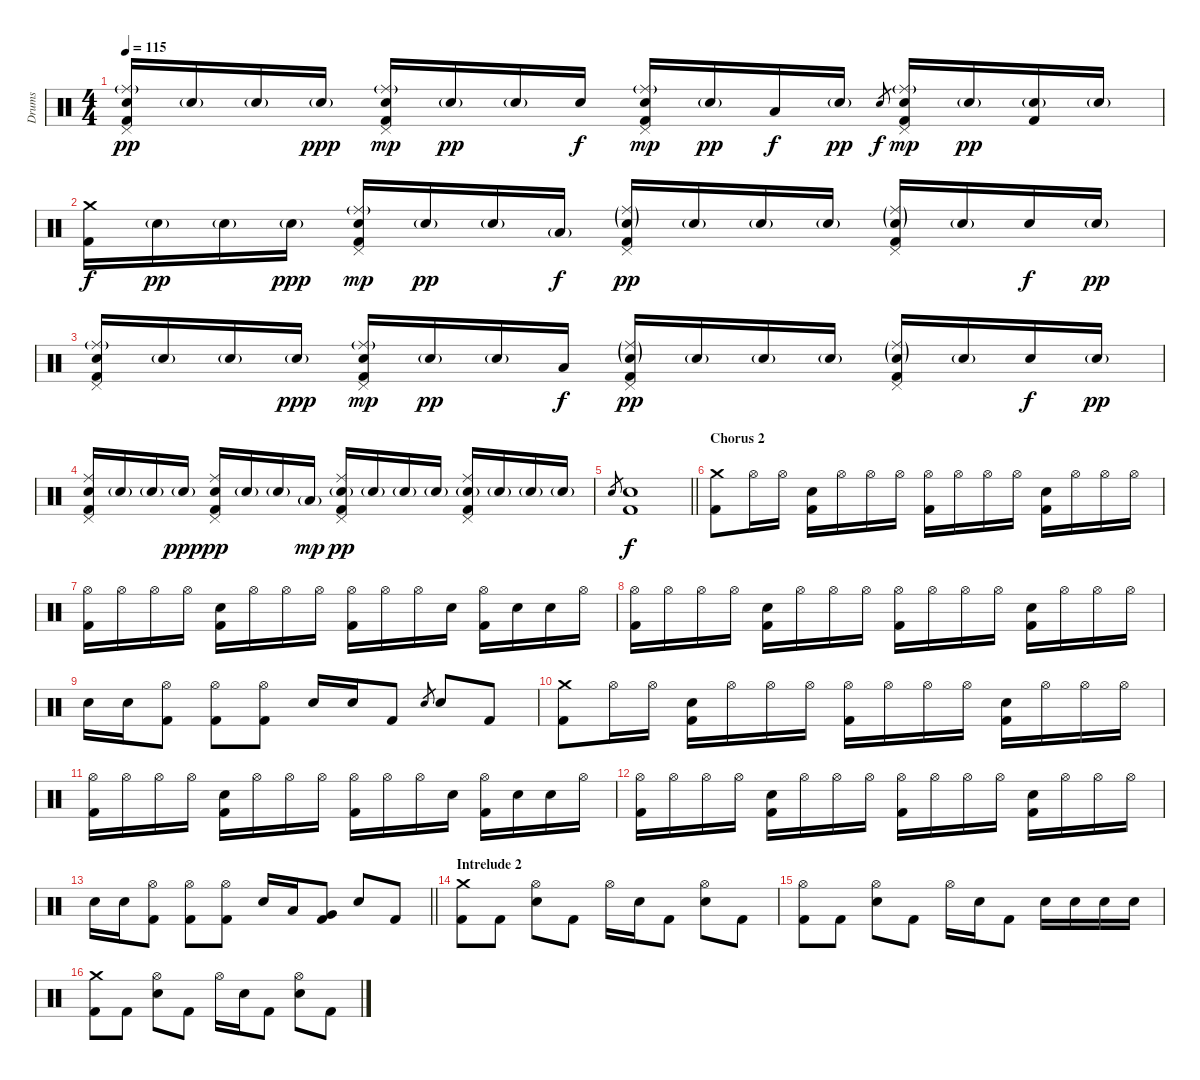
\track ("Drums" "Drums") {instrument percussion}
\staff {score}
\articulation defaults
\ts (4 4)
\tempo 115
\clef neutral
\ks c
("Pedal Hi-Hat (hit)" "Ride (middle)"{g} "Electric Snare (hit)" "Kick (hit) 2").16{dy pp} "Electric Snare (hit)"{g}.16 "Electric Snare (hit)"{g}.16 "Electric Snare (hit)"{g}.16{dy ppp} ("Pedal Hi-Hat (hit)" "Ride (middle)"{g} "Electric Snare (hit)" "Kick (hit) 2").16{dy mp} "Electric Snare (hit)"{g}.16{dy pp} "Electric Snare (hit)"{g}.16 "Electric Snare (hit)".16{dy f} ("Pedal Hi-Hat (hit)" "Ride (middle)"{g} "Electric Snare (hit)" "Kick (hit) 2").16{dy mp} "Electric Snare (hit)"{g}.16{dy pp} "Low Tom (hit)".16{dy f} "Electric Snare (hit)"{g}.16{dy pp} "Electric Snare (hit)".8{gr dy f} ("Pedal Hi-Hat (hit)" "Ride (middle)"{g} "Electric Snare (hit)" "Kick (hit) 2").16{dy mp} "Electric Snare (hit)"{g}.16{dy pp} ("Electric Snare (hit)"{g} "Kick (hit) 2").16 "Electric Snare (hit)"{g}.16 |
("Crash medium (hit)" "Kick (hit) 2").16{dy f} "Electric Snare (hit)"{g}.16{dy pp} "Electric Snare (hit)"{g}.16 "Electric Snare (hit)"{g}.16{dy ppp} ("Pedal Hi-Hat (hit)" "Ride (middle)"{g} "Electric Snare (hit)" "Kick (hit) 2").16{dy mp} "Electric Snare (hit)"{g}.16{dy pp} "Electric Snare (hit)"{g}.16 "Low Tom (hit)"{g}.16{dy f} ("Pedal Hi-Hat (hit)" "Ride (middle)"{g} "Electric Snare (hit)"{g} "Kick (hit) 2").16{dy pp} "Electric Snare (hit)"{g}.16 "Electric Snare (hit)"{g}.16 "Electric Snare (hit)"{g}.16 ("Pedal Hi-Hat (hit)" "Ride (middle)"{g} "Electric Snare (hit)"{g} "Kick (hit) 2").16 "Electric Snare (hit)"{g}.16 "Electric Snare (hit)".16{dy f} "Electric Snare (hit)"{g}.16{dy pp} |
("Pedal Hi-Hat (hit)" "Ride (middle)"{g} "Electric Snare (hit)" "Kick (hit) 2").16 "Electric Snare (hit)"{g}.16 "Electric Snare (hit)"{g}.16 "Electric Snare (hit)"{g}.16{dy ppp} ("Pedal Hi-Hat (hit)" "Ride (middle)"{g} "Electric Snare (hit)" "Kick (hit) 2").16{dy mp} "Electric Snare (hit)"{g}.16{dy pp} "Electric Snare (hit)"{g}.16 "Low Tom (hit)".16{dy f} ("Pedal Hi-Hat (hit)" "Ride (middle)"{g} "Electric Snare (hit)"{g} "Kick (hit) 2").16{dy pp} "Electric Snare (hit)"{g}.16 "Electric Snare (hit)"{g}.16 "Electric Snare (hit)"{g}.16 ("Pedal Hi-Hat (hit)" "Ride (middle)"{g} "Electric Snare (hit)"{g} "Kick (hit) 2").16 "Electric Snare (hit)"{g}.16 "Electric Snare (hit)".16{dy f} "Electric Snare (hit)"{g}.16{dy pp} |
("Pedal Hi-Hat (hit)" "Ride (middle)" "Electric Snare (hit)" "Kick (hit) 2").16 "Electric Snare (hit)"{g}.16 "Electric Snare (hit)"{g}.16 "Electric Snare (hit)"{g}.16{dy ppp} ("Pedal Hi-Hat (hit)" "Ride (middle)" "Electric Snare (hit)" "Kick (hit) 2").16{dy pp} "Electric Snare (hit)"{g}.16 "Electric Snare (hit)"{g}.16 "Low Tom (hit)"{g}.16{dy mp} ("Pedal Hi-Hat (hit)" "Ride (middle)" "Electric Snare (hit)"{g} "Kick (hit) 2").16{dy pp} "Electric Snare (hit)"{g}.16 "Electric Snare (hit)"{g}.16 "Electric Snare (hit)"{g}.16 ("Pedal Hi-Hat (hit)" "Ride (middle)" "Electric Snare (hit)"{g} "Kick (hit) 2").16 "Electric Snare (hit)"{g}.16 "Electric Snare (hit)"{g}.16 "Electric Snare (hit)"{g}.16 |
\barLineRight lightlight "Electric Snare (hit)".8{gr}
("Electric Snare (hit)" "Kick (hit) 2").1{dy f} |
\section ("" "Chorus 2")
("Crash medium (hit)" "Kick (hit) 2").8 "Hi-Hat (open)".16 "Hi-Hat (open)".16 ("Electric Snare (hit)" "Kick (hit) 2").16 "Hi-Hat (open)".16 "Hi-Hat (open)".16 "Hi-Hat (open)".16 ("Hi-Hat (open)" "Kick (hit) 2").16 "Hi-Hat (open)".16 "Hi-Hat (open)".16 "Hi-Hat (open)".16 ("Electric Snare (hit)" "Kick (hit) 2").16 "Hi-Hat (open)".16 "Hi-Hat (open)".16 "Hi-Hat (open)".16 |
("Hi-Hat (open)" "Kick (hit) 2").16 "Hi-Hat (open)".16 "Hi-Hat (open)".16 "Hi-Hat (open)".16 ("Electric Snare (hit)" "Kick (hit) 2").16 "Hi-Hat (open)".16 "Hi-Hat (open)".16 "Hi-Hat (open)".16 ("Hi-Hat (open)" "Kick (hit) 2").16 "Hi-Hat (open)".16 "Hi-Hat (open)".16 "Electric Snare (hit)".16 ("Hi-Hat (open)" "Kick (hit) 2").16 "Electric Snare (hit)".16 "Electric Snare (hit)".16 "Hi-Hat (open)".16 |
("Hi-Hat (open)" "Kick (hit) 2").16 "Hi-Hat (open)".16 "Hi-Hat (open)".16 "Hi-Hat (open)".16 ("Electric Snare (hit)" "Kick (hit) 2").16 "Hi-Hat (open)".16 "Hi-Hat (open)".16 "Hi-Hat (open)".16 ("Hi-Hat (open)" "Kick (hit) 2").16 "Hi-Hat (open)".16 "Hi-Hat (open)".16 "Hi-Hat (open)".16 ("Electric Snare (hit)" "Kick (hit) 2").16 "Hi-Hat (open)".16 "Hi-Hat (open)".16 "Hi-Hat (open)".16 |
"Electric Snare (hit)".16 "Electric Snare (hit)".16 ("Hi-Hat (open)" "Kick (hit) 2").8 ("Hi-Hat (open)" "Kick (hit) 2").8 ("Hi-Hat (open)" "Kick (hit) 2").8 "Electric Snare (hit)".16 "Electric Snare (hit)".16 "Kick (hit) 2".8 "Electric Snare (hit)".8{gr} "Electric Snare (hit)".8 "Kick (hit) 2".8 |
("Crash medium (hit)" "Kick (hit) 2").8 "Hi-Hat (open)".16 "Hi-Hat (open)".16 ("Electric Snare (hit)" "Kick (hit) 2").16 "Hi-Hat (open)".16 "Hi-Hat (open)".16 "Hi-Hat (open)".16 ("Hi-Hat (open)" "Kick (hit) 2").16 "Hi-Hat (open)".16 "Hi-Hat (open)".16 "Hi-Hat (open)".16 ("Electric Snare (hit)" "Kick (hit) 2").16 "Hi-Hat (open)".16 "Hi-Hat (open)".16 "Hi-Hat (open)".16 |
("Hi-Hat (open)" "Kick (hit) 2").16 "Hi-Hat (open)".16 "Hi-Hat (open)".16 "Hi-Hat (open)".16 ("Electric Snare (hit)" "Kick (hit) 2").16 "Hi-Hat (open)".16 "Hi-Hat (open)".16 "Hi-Hat (open)".16 ("Hi-Hat (open)" "Kick (hit) 2").16 "Hi-Hat (open)".16 "Hi-Hat (open)".16 "Electric Snare (hit)".16 ("Hi-Hat (open)" "Kick (hit) 2").16 "Electric Snare (hit)".16 "Electric Snare (hit)".16 "Hi-Hat (open)".16 |
("Hi-Hat (open)" "Kick (hit) 2").16 "Hi-Hat (open)".16 "Hi-Hat (open)".16 "Hi-Hat (open)".16 ("Electric Snare (hit)" "Kick (hit) 2").16 "Hi-Hat (open)".16 "Hi-Hat (open)".16 "Hi-Hat (open)".16 ("Hi-Hat (open)" "Kick (hit) 2").16 "Hi-Hat (open)".16 "Hi-Hat (open)".16 "Hi-Hat (open)".16 ("Electric Snare (hit)" "Kick (hit) 2").16 "Hi-Hat (open)".16 "Hi-Hat (open)".16 "Hi-Hat (open)".16 |
\barLineRight lightlight "Electric Snare (hit)".16 "Electric Snare (hit)".16
("Hi-Hat (open)" "Kick (hit) 2").8 ("Hi-Hat (open)" "Kick (hit) 2").8 ("Hi-Hat (open)" "Kick (hit) 2").8 "Electric Snare (hit)".16 "Low Tom (hit)".16 ("Very Low Tom (hit)" "Kick (hit) 2").8 "Electric Snare (hit)".8 "Kick (hit) 2".8 |
\section ("" "Intrelude 2")
("Crash medium (hit)" "Kick (hit) 2").8 "Kick (hit) 2".8 ("Hi-Hat (open)" "Electric Snare (hit)").8 "Kick (hit) 2".8 "Hi-Hat (open)".16 "Electric Snare (hit)".16 "Kick (hit) 2".8 ("Hi-Hat (open)" "Electric Snare (hit)").8 "Kick (hit) 2".8 |
("Hi-Hat (open)" "Kick (hit) 2").8 "Kick (hit) 2".8 ("Hi-Hat (open)" "Electric Snare (hit)").8 "Kick (hit) 2".8 "Hi-Hat (open)".16 "Electric Snare (hit)".16 "Kick (hit) 2".8 "Electric Snare (hit)".16 "Electric Snare (hit)".16 "Electric Snare (hit)".16 "Electric Snare (hit)".16 |
("Crash medium (hit)" "Kick (hit) 2").8 "Kick (hit) 2".8 ("Hi-Hat (open)" "Electric Snare (hit)").8 "Kick (hit) 2".8 "Hi-Hat (open)".16 "Electric Snare (hit)".16 "Kick (hit) 2".8 ("Hi-Hat (open)" "Electric Snare (hit)").8 "Kick (hit) 2".8
